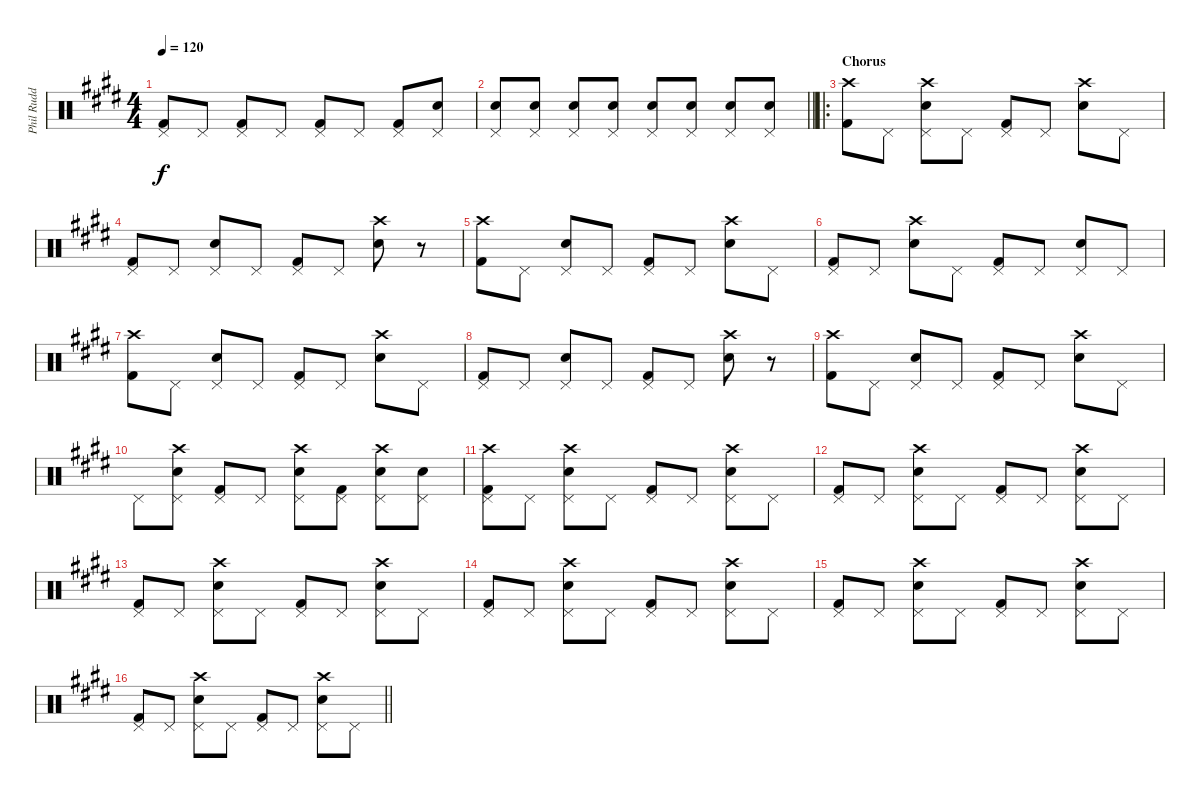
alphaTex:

\track ("Phil Rudd (Drums)" "Phil Rudd ") {instrument percussion}
\staff {score}
\articulation defaults
\ts (4 4)
\tempo 120
\clef neutral
\ks e
("Pedal Hi-Hat (hit)" "Kick (hit) 2").8{dy f} "Pedal Hi-Hat (hit)".8 ("Pedal Hi-Hat (hit)" "Kick (hit) 2").8 "Pedal Hi-Hat (hit)".8 ("Pedal Hi-Hat (hit)" "Kick (hit) 2").8 "Pedal Hi-Hat (hit)".8 ("Pedal Hi-Hat (hit)" "Kick (hit) 2").8 ("Pedal Hi-Hat (hit)" "Snare (hit) 2").8 |
\barLineRight lightlight
("Pedal Hi-Hat (hit)" "Snare (hit) 2").8 ("Pedal Hi-Hat (hit)" "Snare (hit) 2").8 ("Pedal Hi-Hat (hit)" "Snare (hit) 2").8 ("Pedal Hi-Hat (hit)" "Snare (hit) 2").8 ("Pedal Hi-Hat (hit)" "Snare (hit) 2").8 ("Pedal Hi-Hat (hit)" "Snare (hit) 2").8 ("Pedal Hi-Hat (hit)" "Snare (hit) 2").8 ("Pedal Hi-Hat (hit)" "Snare (hit) 2").8 |
\ro
\section ("" "Chorus")
("Crash high (hit)" "Kick (hit) 2").8 "Pedal Hi-Hat (hit)".8 ("Crash high (hit)" "Pedal Hi-Hat (hit)" "Snare (hit) 2").8 "Pedal Hi-Hat (hit)".8 ("Pedal Hi-Hat (hit)" "Kick (hit) 2").8 "Pedal Hi-Hat (hit)".8 ("Crash high (hit)" "Snare (hit) 2").8 "Pedal Hi-Hat (hit)".8 |
("Pedal Hi-Hat (hit)" "Kick (hit) 2").8 "Pedal Hi-Hat (hit)".8 ("Pedal Hi-Hat (hit)" "Snare (hit) 2").8 "Pedal Hi-Hat (hit)".8 ("Pedal Hi-Hat (hit)" "Kick (hit) 2").8 "Pedal Hi-Hat (hit)".8 ("Crash high (hit)" "Snare (hit) 2").8 r.8 |
("Crash high (hit)" "Kick (hit) 2").8 "Pedal Hi-Hat (hit)".8 ("Pedal Hi-Hat (hit)" "Snare (hit) 2").8 "Pedal Hi-Hat (hit)".8 ("Pedal Hi-Hat (hit)" "Kick (hit) 2").8 "Pedal Hi-Hat (hit)".8 ("Crash high (hit)" "Snare (hit) 2").8 "Pedal Hi-Hat (hit)".8 |
("Pedal Hi-Hat (hit)" "Kick (hit) 2").8 "Pedal Hi-Hat (hit)".8 ("Crash high (hit)" "Snare (hit) 2").8 "Pedal Hi-Hat (hit)".8 ("Pedal Hi-Hat (hit)" "Kick (hit) 2").8 "Pedal Hi-Hat (hit)".8 ("Pedal Hi-Hat (hit)" "Snare (hit) 2").8 "Pedal Hi-Hat (hit)".8 |
("Crash high (hit)" "Kick (hit) 2").8 "Pedal Hi-Hat (hit)".8 ("Pedal Hi-Hat (hit)" "Snare (hit) 2").8 "Pedal Hi-Hat (hit)".8 ("Pedal Hi-Hat (hit)" "Kick (hit) 2").8 "Pedal Hi-Hat (hit)".8 ("Crash high (hit)" "Snare (hit) 2").8 "Pedal Hi-Hat (hit)".8 |
("Pedal Hi-Hat (hit)" "Kick (hit) 2").8 "Pedal Hi-Hat (hit)".8 ("Pedal Hi-Hat (hit)" "Snare (hit) 2").8 "Pedal Hi-Hat (hit)".8 ("Pedal Hi-Hat (hit)" "Kick (hit) 2").8 "Pedal Hi-Hat (hit)".8 ("Crash high (hit)" "Snare (hit) 2").8 r.8 |
("Crash high (hit)" "Kick (hit) 2").8 "Pedal Hi-Hat (hit)".8 ("Pedal Hi-Hat (hit)" "Snare (hit) 2").8 "Pedal Hi-Hat (hit)".8 ("Pedal Hi-Hat (hit)" "Kick (hit) 2").8 "Pedal Hi-Hat (hit)".8 ("Crash high (hit)" "Snare (hit) 2").8 "Pedal Hi-Hat (hit)".8 |
"Pedal Hi-Hat (hit)".8 ("Crash high (hit)" "Pedal Hi-Hat (hit)" "Snare (hit) 2").8 ("Pedal Hi-Hat (hit)" "Kick (hit) 2").8 "Pedal Hi-Hat (hit)".8 ("Crash high (hit)" "Pedal Hi-Hat (hit)" "Snare (hit) 2").8 ("Pedal Hi-Hat (hit)" "Kick (hit) 2").8 ("Crash high (hit)" "Pedal Hi-Hat (hit)" "Snare (hit) 2").8 ("Pedal Hi-Hat (hit)" "Snare (hit) 2").8 |
("Crash high (hit)" "Pedal Hi-Hat (hit)" "Kick (hit) 2").8 "Pedal Hi-Hat (hit)".8 ("Crash high (hit)" "Pedal Hi-Hat (hit)" "Snare (hit) 2").8 "Pedal Hi-Hat (hit)".8 ("Pedal Hi-Hat (hit)" "Kick (hit) 2").8 "Pedal Hi-Hat (hit)".8 ("Crash high (hit)" "Pedal Hi-Hat (hit)" "Snare (hit) 2").8 "Pedal Hi-Hat (hit)".8 |
("Pedal Hi-Hat (hit)" "Kick (hit) 2").8 "Pedal Hi-Hat (hit)".8 ("Crash high (hit)" "Pedal Hi-Hat (hit)" "Snare (hit) 2").8 "Pedal Hi-Hat (hit)".8 ("Pedal Hi-Hat (hit)" "Kick (hit) 2").8 "Pedal Hi-Hat (hit)".8 ("Crash high (hit)" "Pedal Hi-Hat (hit)" "Snare (hit) 2").8 "Pedal Hi-Hat (hit)".8 |
("Pedal Hi-Hat (hit)" "Kick (hit) 2").8 "Pedal Hi-Hat (hit)".8 ("Crash high (hit)" "Pedal Hi-Hat (hit)" "Snare (hit) 2").8 "Pedal Hi-Hat (hit)".8 ("Pedal Hi-Hat (hit)" "Kick (hit) 2").8 "Pedal Hi-Hat (hit)".8 ("Crash high (hit)" "Pedal Hi-Hat (hit)" "Snare (hit) 2").8 "Pedal Hi-Hat (hit)".8 |
("Pedal Hi-Hat (hit)" "Kick (hit) 2").8 "Pedal Hi-Hat (hit)".8 ("Crash high (hit)" "Pedal Hi-Hat (hit)" "Snare (hit) 2").8 "Pedal Hi-Hat (hit)".8 ("Pedal Hi-Hat (hit)" "Kick (hit) 2").8 "Pedal Hi-Hat (hit)".8 ("Crash high (hit)" "Pedal Hi-Hat (hit)" "Snare (hit) 2").8 "Pedal Hi-Hat (hit)".8 |
("Pedal Hi-Hat (hit)" "Kick (hit) 2").8 "Pedal Hi-Hat (hit)".8 ("Crash high (hit)" "Pedal Hi-Hat (hit)" "Snare (hit) 2").8 "Pedal Hi-Hat (hit)".8 ("Pedal Hi-Hat (hit)" "Kick (hit) 2").8 "Pedal Hi-Hat (hit)".8 ("Crash high (hit)" "Pedal Hi-Hat (hit)" "Snare (hit) 2").8 "Pedal Hi-Hat (hit)".8 |
\barLineRight lightlight
("Pedal Hi-Hat (hit)" "Kick (hit) 2").8 "Pedal Hi-Hat (hit)".8 ("Crash high (hit)" "Pedal Hi-Hat (hit)" "Snare (hit) 2").8 "Pedal Hi-Hat (hit)".8 ("Pedal Hi-Hat (hit)" "Kick (hit) 2").8 "Pedal Hi-Hat (hit)".8 ("Crash high (hit)" "Pedal Hi-Hat (hit)" "Snare (hit) 2").8 "Pedal Hi-Hat (hit)".8
